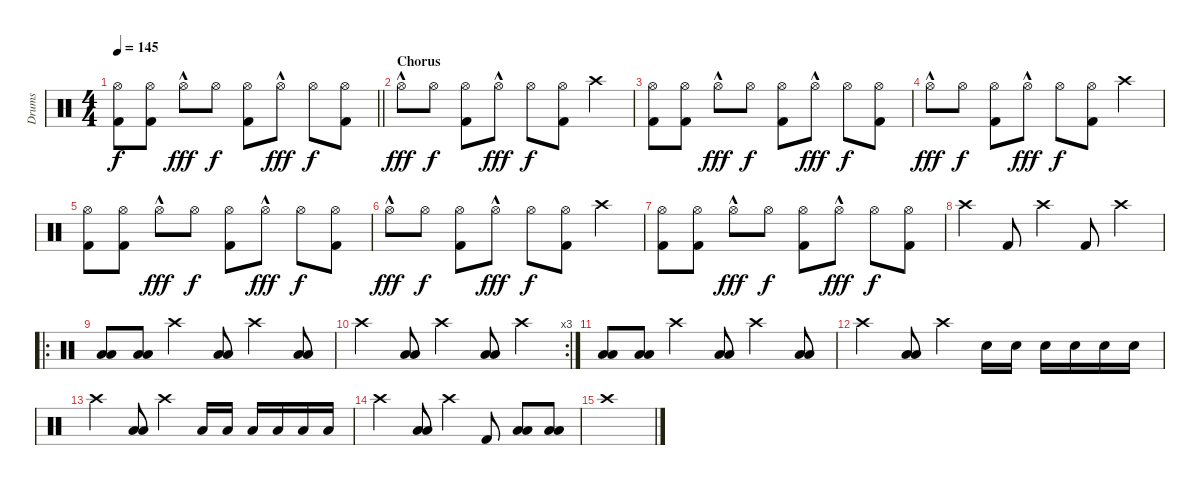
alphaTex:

\track ("Drums" "Drums") {instrument percussion}
\staff {score}
\articulation defaults
\ts (4 4)
\tempo 145
\clef neutral
\barLineRight lightlight
\ks c
("Hi-Hat (open)" "Kick (hit) 2").8{dy f} ("Hi-Hat (open)" "Kick (hit) 2").8 "Hi-Hat (open)"{hac}.8{dy fff} "Hi-Hat (open)".8{dy f} ("Hi-Hat (open)" "Kick (hit) 2").8 "Hi-Hat (open)"{hac}.8{dy fff} "Hi-Hat (open)".8{dy f} ("Hi-Hat (open)" "Kick (hit) 2").8 |
\section ("" "Chorus")
"Hi-Hat (open)"{hac}.8{dy fff} "Hi-Hat (open)".8{dy f} ("Hi-Hat (open)" "Kick (hit) 2").8 "Hi-Hat (open)"{hac}.8{dy fff} "Hi-Hat (open)".8{dy f} ("Hi-Hat (open)" "Kick (hit) 2").8 "Crash high (hit)".4 |
("Hi-Hat (open)" "Kick (hit) 2").8 ("Hi-Hat (open)" "Kick (hit) 2").8 "Hi-Hat (open)"{hac}.8{dy fff} "Hi-Hat (open)".8{dy f} ("Hi-Hat (open)" "Kick (hit) 2").8 "Hi-Hat (open)"{hac}.8{dy fff} "Hi-Hat (open)".8{dy f} ("Hi-Hat (open)" "Kick (hit) 2").8 |
"Hi-Hat (open)"{hac}.8{dy fff} "Hi-Hat (open)".8{dy f} ("Hi-Hat (open)" "Kick (hit) 2").8 "Hi-Hat (open)"{hac}.8{dy fff} "Hi-Hat (open)".8{dy f} ("Hi-Hat (open)" "Kick (hit) 2").8 "Crash high (hit)".4 |
("Hi-Hat (open)" "Kick (hit) 2").8 ("Hi-Hat (open)" "Kick (hit) 2").8 "Hi-Hat (open)"{hac}.8{dy fff} "Hi-Hat (open)".8{dy f} ("Hi-Hat (open)" "Kick (hit) 2").8 "Hi-Hat (open)"{hac}.8{dy fff} "Hi-Hat (open)".8{dy f} ("Hi-Hat (open)" "Kick (hit) 2").8 |
"Hi-Hat (open)"{hac}.8{dy fff} "Hi-Hat (open)".8{dy f} ("Hi-Hat (open)" "Kick (hit) 2").8 "Hi-Hat (open)"{hac}.8{dy fff} "Hi-Hat (open)".8{dy f} ("Hi-Hat (open)" "Kick (hit) 2").8 "Crash high (hit)".4 |
("Hi-Hat (open)" "Kick (hit) 2").8 ("Hi-Hat (open)" "Kick (hit) 2").8 "Hi-Hat (open)"{hac}.8{dy fff} "Hi-Hat (open)".8{dy f} ("Hi-Hat (open)" "Kick (hit) 2").8 "Hi-Hat (open)"{hac}.8{dy fff} "Hi-Hat (open)".8{dy f} ("Hi-Hat (open)" "Kick (hit) 2").8 |
"Crash high (hit)".4 "Kick (hit) 2".8 "Crash high (hit)".4 "Kick (hit) 2".8 "Crash high (hit)".4 |
\ro
("Low Tom (hit)" "Low Tom (hit)").8 ("Low Tom (hit)" "Low Tom (hit)").8 "Crash high (hit)".4 ("Low Tom (hit)" "Low Tom (hit)").8 "Crash high (hit)".4 ("Low Tom (hit)" "Low Tom (hit)").8 |
\rc 3 "Crash high (hit)".4
("Low Tom (hit)" "Low Tom (hit)").8 "Crash high (hit)".4 ("Low Tom (hit)" "Low Tom (hit)").8 "Crash high (hit)".4 |
("Low Tom (hit)" "Low Tom (hit)").8 ("Low Tom (hit)" "Low Tom (hit)").8 "Crash high (hit)".4 ("Low Tom (hit)" "Low Tom (hit)").8 "Crash high (hit)".4 ("Low Tom (hit)" "Low Tom (hit)").8 |
"Crash high (hit)".4 ("Low Tom (hit)" "Low Tom (hit)").8 "Crash high (hit)".4 "Electric Snare (hit)".16 "Electric Snare (hit)".16 "Electric Snare (hit)".16 "Electric Snare (hit)".16 "Electric Snare (hit)".16 "Electric Snare (hit)".16 |
"Crash high (hit)".4 ("Low Tom (hit)" "Low Tom (hit)").8 "Crash high (hit)".4 "Low Tom (hit)".16 "Low Tom (hit)".16 "Low Tom (hit)".16 "Low Tom (hit)".16 "Low Tom (hit)".16 "Low Tom (hit)".16 |
"Crash high (hit)".4 ("Low Tom (hit)" "Low Tom (hit)").8 "Crash high (hit)".4 "Kick (hit) 2".8 ("Low Tom (hit)" "Low Tom (hit)").8 ("Low Tom (hit)" "Low Tom (hit)").8 |
"Crash high (hit)".1
